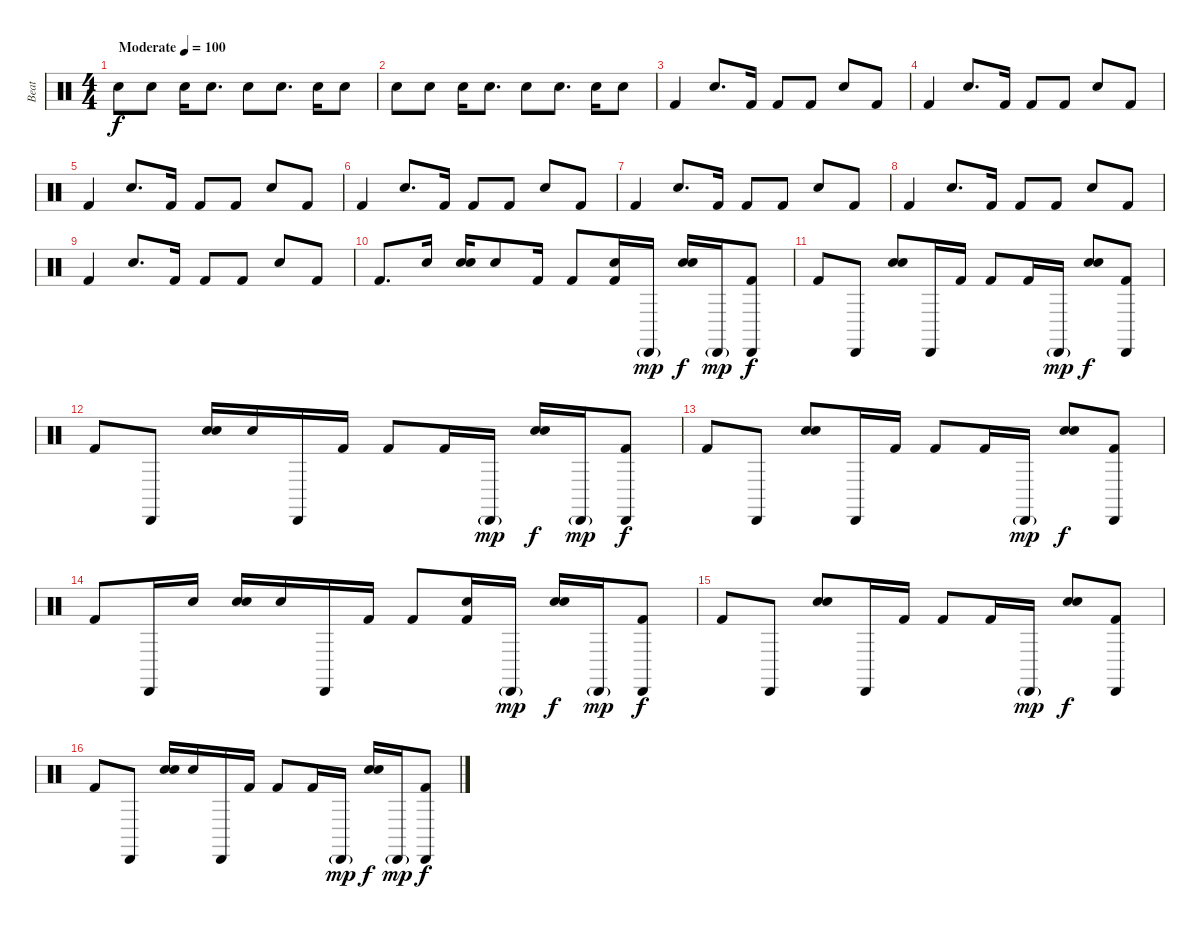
\track ("Beat" "Beat") {instrument percussion}
\staff {score}
\articulation defaults
\ts (4 4)
\tempo (100 "Moderate")
\clef neutral
\ks c "Hand Clap (hit)".8{dy f} "Hand Clap (hit)".8 "Hand Clap (hit)".16 "Hand Clap (hit)".8{d} "Hand Clap (hit)".8 "Hand Clap (hit)".8{d} "Hand Clap (hit)".16 "Hand Clap (hit)".8
|
"Hand Clap (hit)".8 "Hand Clap (hit)".8 "Hand Clap (hit)".16 "Hand Clap (hit)".8{d} "Hand Clap (hit)".8 "Hand Clap (hit)".8{d} "Hand Clap (hit)".16 "Hand Clap (hit)".8 |
"Kick (hit) 2".4 "Hand Clap (hit)".8{d} "Kick (hit) 2".16 "Kick (hit) 2".8 "Kick (hit) 2".8 "Hand Clap (hit)".8 "Kick (hit) 2".8 |
"Kick (hit) 2".4 "Hand Clap (hit)".8{d} "Kick (hit) 2".16 "Kick (hit) 2".8 "Kick (hit) 2".8 "Hand Clap (hit)".8 "Kick (hit) 2".8 |
"Kick (hit) 2".4 "Hand Clap (hit)".8{d} "Kick (hit) 2".16 "Kick (hit) 2".8 "Kick (hit) 2".8 "Hand Clap (hit)".8 "Kick (hit) 2".8 |
"Kick (hit) 2".4 "Hand Clap (hit)".8{d} "Kick (hit) 2".16 "Kick (hit) 2".8 "Kick (hit) 2".8 "Hand Clap (hit)".8 "Kick (hit) 2".8 |
"Kick (hit) 2".4 "Hand Clap (hit)".8{d} "Kick (hit) 2".16 "Kick (hit) 2".8 "Kick (hit) 2".8 "Hand Clap (hit)".8 "Kick (hit) 2".8 |
"Kick (hit) 2".4 "Hand Clap (hit)".8{d} "Kick (hit) 2".16 "Kick (hit) 2".8 "Kick (hit) 2".8 "Hand Clap (hit)".8 "Kick (hit) 2".8 |
"Kick (hit) 2".4 "Hand Clap (hit)".8{d} "Kick (hit) 2".16 "Kick (hit) 2".8 "Kick (hit) 2".8 "Hand Clap (hit)".8 "Kick (hit) 2".8 |
"Kick (hit) 2".8{d} "Electric Snare (hit)".16 ("Electric Snare (hit)" "Hand Clap (hit)").16 "Electric Snare (hit)".8 "Kick (hit) 2".16 "Kick (hit) 2".8 ("Electric Snare (hit)" "Kick (hit) 2").16 "Cabasa (hit)"{g}.16{dy mp} ("Electric Snare (hit)" "Hand Clap (hit)").16{dy f} "Cabasa (hit)"{g}.16{dy mp} ("Cabasa (hit)" "Kick (hit) 2").8{dy f} |
"Kick (hit) 2".8 "Cabasa (hit)".8 ("Electric Snare (hit)" "Hand Clap (hit)").8 "Cabasa (hit)".16 "Kick (hit) 2".16 "Kick (hit) 2".8 "Kick (hit) 2".16 "Cabasa (hit)"{g}.16{dy mp} ("Electric Snare (hit)" "Hand Clap (hit)").8{dy f} ("Cabasa (hit)" "Kick (hit) 2").8 |
"Kick (hit) 2".8 "Cabasa (hit)".8 ("Electric Snare (hit)" "Hand Clap (hit)").16 "Electric Snare (hit)".16 "Cabasa (hit)".16 "Kick (hit) 2".16 "Kick (hit) 2".8 "Kick (hit) 2".16 "Cabasa (hit)"{g}.16{dy mp} ("Electric Snare (hit)" "Hand Clap (hit)").16{dy f} "Cabasa (hit)"{g}.16{dy mp} ("Cabasa (hit)" "Kick (hit) 2").8{dy f} |
"Kick (hit) 2".8 "Cabasa (hit)".8 ("Electric Snare (hit)" "Hand Clap (hit)").8 "Cabasa (hit)".16 "Kick (hit) 2".16 "Kick (hit) 2".8 "Kick (hit) 2".16 "Cabasa (hit)"{g}.16{dy mp} ("Electric Snare (hit)" "Hand Clap (hit)").8{dy f} ("Cabasa (hit)" "Kick (hit) 2").8 |
"Kick (hit) 2".8 "Cabasa (hit)".16 "Electric Snare (hit)".16 ("Electric Snare (hit)" "Hand Clap (hit)").16 "Electric Snare (hit)".16 "Cabasa (hit)".16 "Kick (hit) 2".16 "Kick (hit) 2".8 ("Electric Snare (hit)" "Kick (hit) 2").16 "Cabasa (hit)"{g}.16{dy mp} ("Electric Snare (hit)" "Hand Clap (hit)").16{dy f} "Cabasa (hit)"{g}.16{dy mp} ("Cabasa (hit)" "Kick (hit) 2").8{dy f} |
"Kick (hit) 2".8 "Cabasa (hit)".8 ("Electric Snare (hit)" "Hand Clap (hit)").8 "Cabasa (hit)".16 "Kick (hit) 2".16 "Kick (hit) 2".8 "Kick (hit) 2".16 "Cabasa (hit)"{g}.16{dy mp} ("Electric Snare (hit)" "Hand Clap (hit)").8{dy f} ("Cabasa (hit)" "Kick (hit) 2").8 |
"Kick (hit) 2".8 "Cabasa (hit)".8 ("Electric Snare (hit)" "Hand Clap (hit)").16 "Electric Snare (hit)".16 "Cabasa (hit)".16 "Kick (hit) 2".16 "Kick (hit) 2".8 "Kick (hit) 2".16 "Cabasa (hit)"{g}.16{dy mp} ("Electric Snare (hit)" "Hand Clap (hit)").16{dy f} "Cabasa (hit)"{g}.16{dy mp} ("Cabasa (hit)" "Kick (hit) 2").8{dy f}
